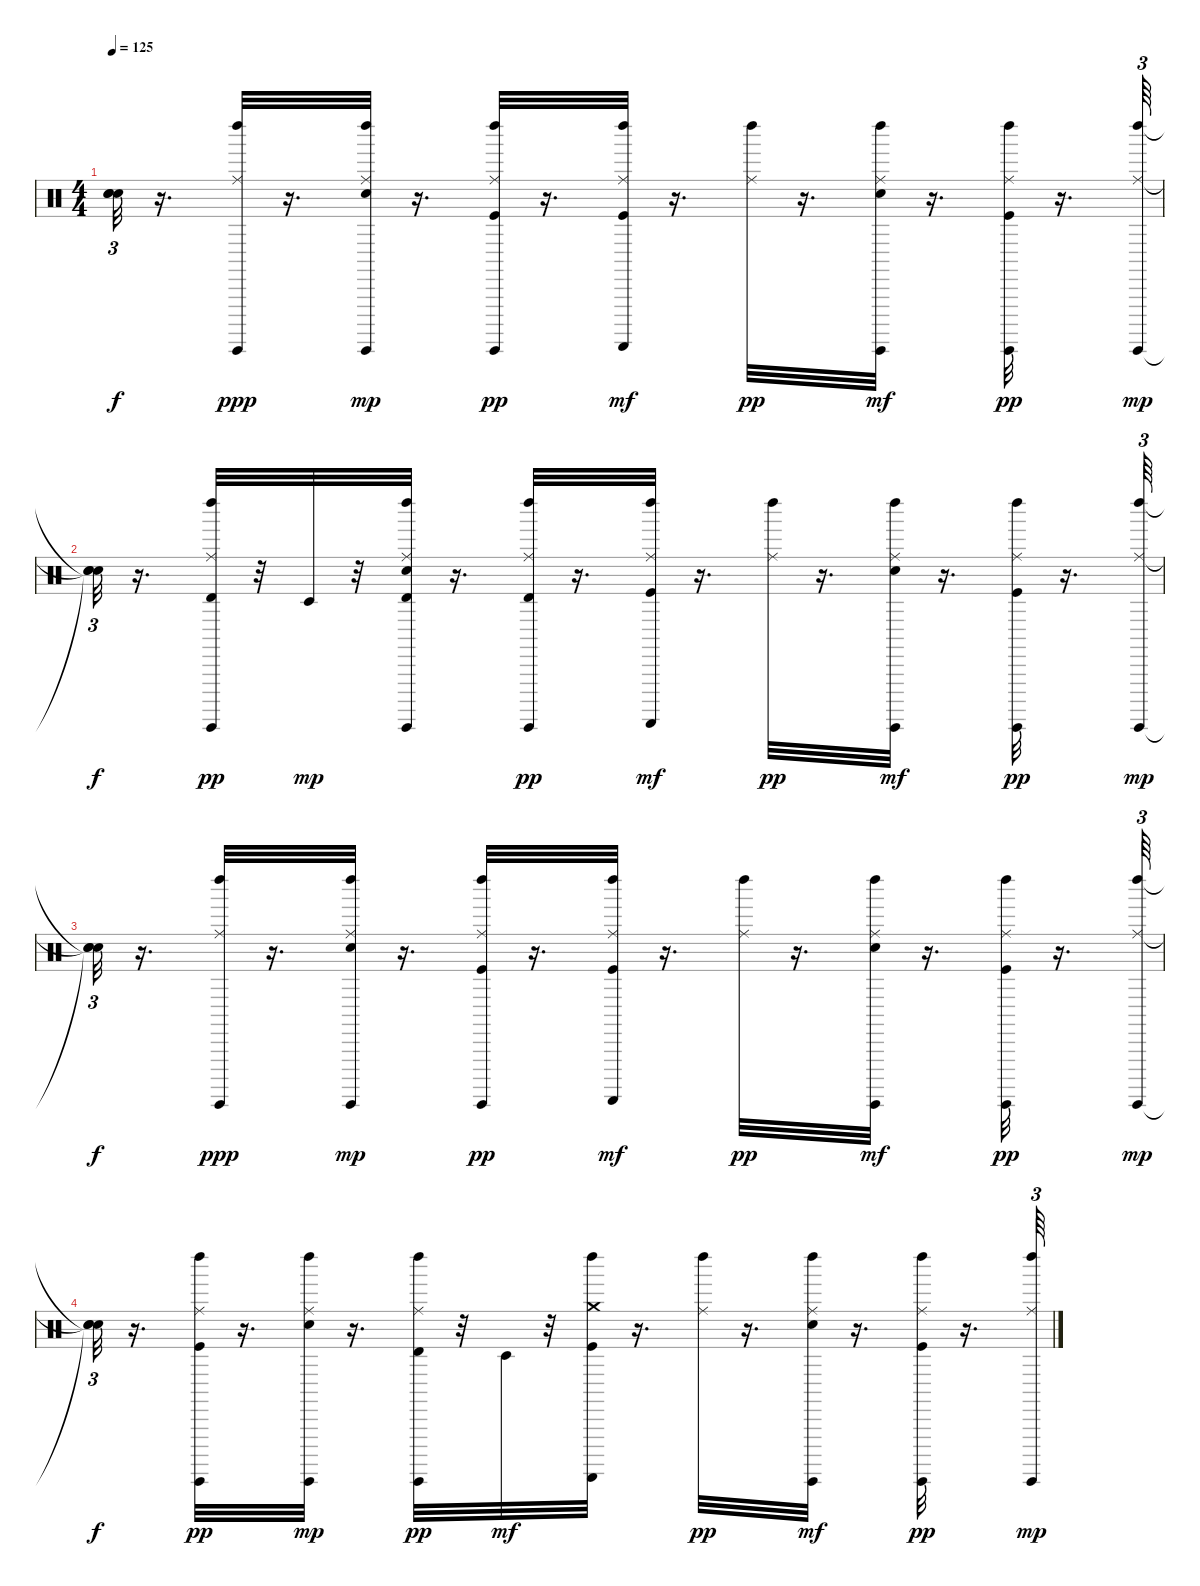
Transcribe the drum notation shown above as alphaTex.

\track "" {instrument percussion}
\staff {score}
\articulation defaults
\ts (4 4)
\tempo 125
\clef neutral
\ks c
("Snare (hit)"{t} "Snare (hit)"{t} "Snare (hit)"{t}).32{tu (3 2) dy f} r.16{d} ("Ride (middle)" "Left Maraca (hit)" "Guiro (hit)").32{dy ppp} r.16{d} ("Electric Snare (hit)" "Left Maraca (hit)" "Ride (middle)" "Guiro (hit)").32{dy mp} r.16{d} ("Ride (middle)" "Kick (hit)" "Left Maraca (hit)" "Guiro (hit)").32{dy pp} r.16{d} ("Ride (middle)" "Kick (hit)" "Left Maraca (hit)" "Guiro (scrap-return)").32{dy mf} r.16{d} ("Left Maraca (hit)" "Ride (middle)").32{dy pp} r.16{d} ("Electric Snare (hit)" "Left Maraca (hit)" "Ride (middle)" "Guiro (hit)").32{dy mf} r.16{d} ("Kick (hit)" "Left Maraca (hit)" "Ride (middle)" "Guiro (hit)").32{dy pp} r.16{d} ("Ride (middle)" "Left Maraca (hit)" "Guiro (hit)").64{tu (3 2) dy mp} |
("Snare (hit)"{t} "Snare (hit)"{t} "Snare (hit)"{t}).32{tu (3 2) dy f} r.16{d} ("Timbale high (hit)" "Ride (middle)" "Left Maraca (hit)" "Guiro (hit)").32{dy pp} r.32 "Timbale low (hit)".32{dy mp} r.32 ("Timbale high (hit)" "Ride (middle)" "Left Maraca (hit)" "Electric Snare (hit)" "Guiro (hit)").32 r.16{d} ("Ride (middle)" "Timbale high (hit)" "Left Maraca (hit)" "Guiro (hit)").32{dy pp} r.16{d} ("Ride (middle)" "Kick (hit)" "Left Maraca (hit)" "Guiro (scrap-return)").32{dy mf} r.16{d} ("Left Maraca (hit)" "Ride (middle)").32{dy pp} r.16{d} ("Left Maraca (hit)" "Ride (middle)" "Electric Snare (hit)" "Guiro (hit)").32{dy mf} r.16{d} ("Kick (hit)" "Ride (middle)" "Left Maraca (hit)" "Guiro (hit)").32{dy pp} r.16{d} ("Left Maraca (hit)" "Ride (middle)" "Guiro (hit)").64{tu (3 2) dy mp} |
("Snare (hit)"{t} "Snare (hit)"{t} "Snare (hit)"{t}).32{tu (3 2) dy f} r.16{d} ("Ride (middle)" "Left Maraca (hit)" "Guiro (hit)").32{dy ppp} r.16{d} ("Left Maraca (hit)" "Ride (middle)" "Electric Snare (hit)" "Guiro (hit)").32{dy mp} r.16{d} ("Kick (hit)" "Left Maraca (hit)" "Ride (middle)" "Guiro (hit)").32{dy pp} r.16{d} ("Kick (hit)" "Left Maraca (hit)" "Ride (middle)" "Guiro (scrap-return)").32{dy mf} r.16{d} ("Ride (middle)" "Left Maraca (hit)").32{dy pp} r.16{d} ("Ride (middle)" "Left Maraca (hit)" "Electric Snare (hit)" "Guiro (hit)").32{dy mf} r.16{d} ("Kick (hit)" "Left Maraca (hit)" "Ride (middle)" "Guiro (hit)").32{dy pp} r.16{d} ("Ride (middle)" "Left Maraca (hit)" "Guiro (hit)").64{tu (3 2) dy mp} |
("Snare (hit)"{t} "Snare (hit)"{t} "Snare (hit)"{t}).32{tu (3 2) dy f} r.16{d} ("Ride (middle)" "Left Maraca (hit)" "Kick (hit)" "Guiro (hit)").32{dy pp} r.16{d} ("Left Maraca (hit)" "Ride (middle)" "Electric Snare (hit)" "Guiro (hit)").32{dy mp} r.16{d} ("Timbale high (hit)" "Left Maraca (hit)" "Ride (middle)" "Guiro (hit)").32{dy pp} r.32 "Timbale low (hit)".32{dy mf} r.32 ("Crash medium (hit)" "Left Maraca (hit)" "Kick (hit)" "Guiro (scrap-return)").32 r.16{d} ("Ride (middle)" "Left Maraca (hit)").32{dy pp} r.16{d} ("Electric Snare (hit)" "Left Maraca (hit)" "Ride (middle)" "Guiro (hit)").32{dy mf} r.16{d} ("Left Maraca (hit)" "Ride (middle)" "Kick (hit)" "Guiro (hit)").32{dy pp} r.16{d} ("Ride (middle)" "Left Maraca (hit)" "Guiro (hit)").64{tu (3 2) dy mp}
